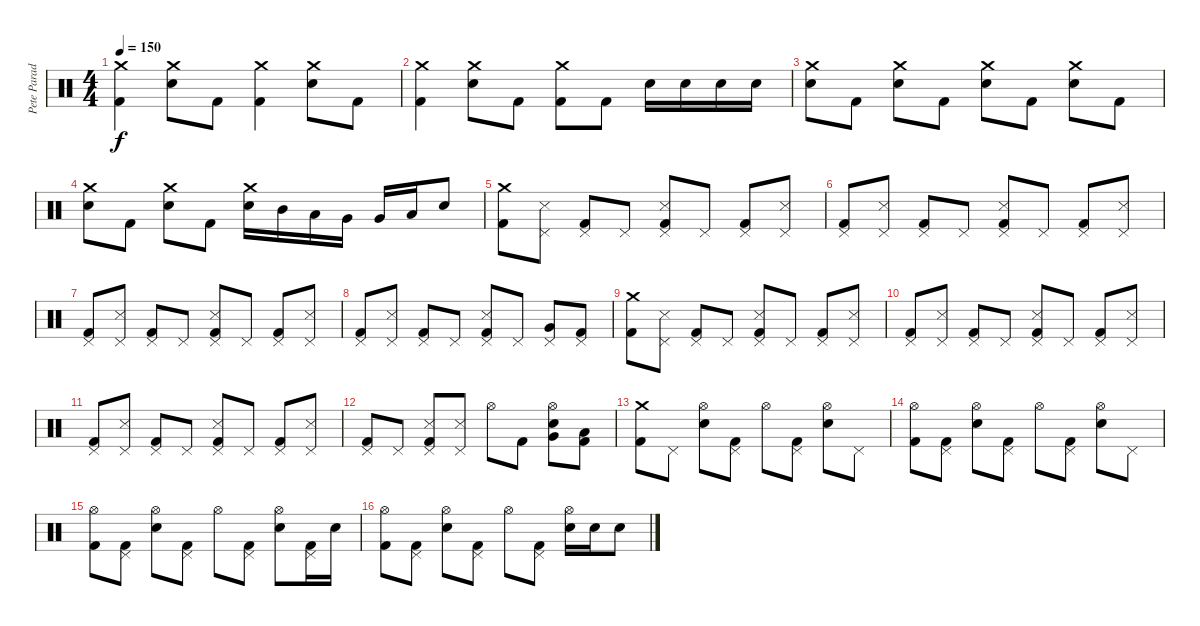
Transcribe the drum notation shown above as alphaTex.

\track ("Pete Parada - Drums" "Pete Parad") {instrument percussion}
\staff {score}
\articulation defaults
\ts (4 4)
\tempo 150
\clef neutral
\ks c
("Crash medium (hit)" "Kick (hit) 2").4{dy f} ("Crash medium (hit)" "Electric Snare (hit)").8 "Kick (hit) 2".8 ("Crash medium (hit)" "Kick (hit) 2").4 ("Crash medium (hit)" "Electric Snare (hit)").8 "Kick (hit) 2".8 |
("Crash medium (hit)" "Kick (hit) 2").4 ("Crash medium (hit)" "Electric Snare (hit)").8 "Kick (hit) 2".8 ("Crash medium (hit)" "Kick (hit) 2").8 "Kick (hit) 2".8 "Electric Snare (hit)".16 "Electric Snare (hit)".16 "Electric Snare (hit)".16 "Electric Snare (hit)".16 |
("Crash medium (hit)" "Electric Snare (hit)").8 "Kick (hit) 2".8 ("Crash medium (hit)" "Electric Snare (hit)").8 "Kick (hit) 2".8 ("Crash medium (hit)" "Electric Snare (hit)").8 "Kick (hit) 2".8 ("Crash medium (hit)" "Electric Snare (hit)").8 "Kick (hit) 2".8 |
("Crash medium (hit)" "Electric Snare (hit)").8 "Kick (hit) 2".8 ("Crash medium (hit)" "Electric Snare (hit)").8 "Kick (hit) 2".8 ("Crash medium (hit)" "Electric Snare (hit)").16 "Mid Tom (hit)".16 "Low Tom (hit)".16 "Very Low Tom (hit)".16 "Very Low Tom (hit)".16 "Low Floor Tom (hit)".16 "Electric Snare (hit)".8 |
("Crash medium (hit)" "Kick (hit) 2").8 ("Pedal Hi-Hat (hit)" "Snare (side stick) 3").8 ("Pedal Hi-Hat (hit)" "Kick (hit) 2").8 "Pedal Hi-Hat (hit)".8 ("Pedal Hi-Hat (hit)" "Snare (side stick) 3" "Kick (hit) 2").8 "Pedal Hi-Hat (hit)".8 ("Pedal Hi-Hat (hit)" "Kick (hit) 2").8 ("Pedal Hi-Hat (hit)" "Snare (side stick) 3").8 |
("Pedal Hi-Hat (hit)" "Kick (hit) 2").8 ("Pedal Hi-Hat (hit)" "Snare (side stick) 3").8 ("Pedal Hi-Hat (hit)" "Kick (hit) 2").8 "Pedal Hi-Hat (hit)".8 ("Pedal Hi-Hat (hit)" "Snare (side stick) 3" "Kick (hit) 2").8 "Pedal Hi-Hat (hit)".8 ("Pedal Hi-Hat (hit)" "Kick (hit) 2").8 ("Pedal Hi-Hat (hit)" "Snare (side stick) 3").8 |
("Pedal Hi-Hat (hit)" "Kick (hit) 2").8 ("Pedal Hi-Hat (hit)" "Snare (side stick) 3").8 ("Pedal Hi-Hat (hit)" "Kick (hit) 2").8 "Pedal Hi-Hat (hit)".8 ("Pedal Hi-Hat (hit)" "Snare (side stick) 3" "Kick (hit) 2").8 "Pedal Hi-Hat (hit)".8 ("Pedal Hi-Hat (hit)" "Kick (hit) 2").8 ("Pedal Hi-Hat (hit)" "Snare (side stick) 3").8 |
("Pedal Hi-Hat (hit)" "Kick (hit) 2").8 ("Pedal Hi-Hat (hit)" "Snare (side stick) 3").8 ("Pedal Hi-Hat (hit)" "Kick (hit) 2").8 "Pedal Hi-Hat (hit)".8 ("Pedal Hi-Hat (hit)" "Snare (side stick) 3" "Kick (hit) 2").8 "Pedal Hi-Hat (hit)".8 ("Pedal Hi-Hat (hit)" "Very Low Tom (hit)").8 ("Pedal Hi-Hat (hit)" "Kick (hit) 2").8 |
("Crash medium (hit)" "Kick (hit) 2").8 ("Pedal Hi-Hat (hit)" "Snare (side stick) 3").8 ("Pedal Hi-Hat (hit)" "Kick (hit) 2").8 "Pedal Hi-Hat (hit)".8 ("Pedal Hi-Hat (hit)" "Snare (side stick) 3" "Kick (hit) 2").8 "Pedal Hi-Hat (hit)".8 ("Pedal Hi-Hat (hit)" "Kick (hit) 2").8 ("Pedal Hi-Hat (hit)" "Snare (side stick) 3").8 |
("Pedal Hi-Hat (hit)" "Kick (hit) 2").8 ("Pedal Hi-Hat (hit)" "Snare (side stick) 3").8 ("Pedal Hi-Hat (hit)" "Kick (hit) 2").8 "Pedal Hi-Hat (hit)".8 ("Pedal Hi-Hat (hit)" "Snare (side stick) 3" "Kick (hit) 2").8 "Pedal Hi-Hat (hit)".8 ("Pedal Hi-Hat (hit)" "Kick (hit) 2").8 ("Pedal Hi-Hat (hit)" "Snare (side stick) 3").8 |
("Pedal Hi-Hat (hit)" "Kick (hit) 2").8 ("Pedal Hi-Hat (hit)" "Snare (side stick) 3").8 ("Pedal Hi-Hat (hit)" "Kick (hit) 2").8 "Pedal Hi-Hat (hit)".8 ("Pedal Hi-Hat (hit)" "Snare (side stick) 3" "Kick (hit) 2").8 "Pedal Hi-Hat (hit)".8 ("Pedal Hi-Hat (hit)" "Kick (hit) 2").8 ("Pedal Hi-Hat (hit)" "Snare (side stick) 3").8 |
("Pedal Hi-Hat (hit)" "Kick (hit) 2").8 "Pedal Hi-Hat (hit)".8 ("Pedal Hi-Hat (hit)" "Snare (side stick) 3" "Kick (hit) 2").8 ("Pedal Hi-Hat (hit)" "Snare (side stick) 3").8 "Hi-Hat (open)".8 "Kick (hit) 2".8 ("Hi-Hat (open)" "Very Low Tom (hit)" "Electric Snare (hit)").8 ("Low Tom (hit)" "Kick (hit) 2").8 |
("Crash medium (hit)" "Kick (hit) 2").8{volume 16} "Pedal Hi-Hat (hit)".8 ("Hi-Hat (open)" "Electric Snare (hit)").8 ("Pedal Hi-Hat (hit)" "Kick (hit) 2").8 "Hi-Hat (open)".8 ("Pedal Hi-Hat (hit)" "Kick (hit) 2").8 ("Hi-Hat (open)" "Electric Snare (hit)").8 "Pedal Hi-Hat (hit)".8 |
("Hi-Hat (open)" "Kick (hit) 2").8 ("Pedal Hi-Hat (hit)" "Kick (hit) 2").8 ("Hi-Hat (open)" "Electric Snare (hit)").8 ("Pedal Hi-Hat (hit)" "Kick (hit) 2").8 "Hi-Hat (open)".8 ("Pedal Hi-Hat (hit)" "Kick (hit) 2").8 ("Hi-Hat (open)" "Electric Snare (hit)").8 "Pedal Hi-Hat (hit)".8 |
("Hi-Hat (open)" "Kick (hit) 2").8 ("Pedal Hi-Hat (hit)" "Kick (hit) 2").8 ("Hi-Hat (open)" "Electric Snare (hit)").8 ("Pedal Hi-Hat (hit)" "Kick (hit) 2").8 "Hi-Hat (open)".8 ("Pedal Hi-Hat (hit)" "Kick (hit) 2").8 ("Hi-Hat (open)" "Electric Snare (hit)").8 ("Pedal Hi-Hat (hit)" "Kick (hit) 2").16 "Electric Snare (hit)".16 |
("Hi-Hat (open)" "Kick (hit) 2").8 ("Pedal Hi-Hat (hit)" "Kick (hit) 2").8 ("Hi-Hat (open)" "Electric Snare (hit)").8 ("Pedal Hi-Hat (hit)" "Kick (hit) 2").8 "Hi-Hat (open)".8 ("Pedal Hi-Hat (hit)" "Kick (hit) 2").8 ("Hi-Hat (open)" "Electric Snare (hit)").16 "Electric Snare (hit)".16 "Electric Snare (hit)".8
